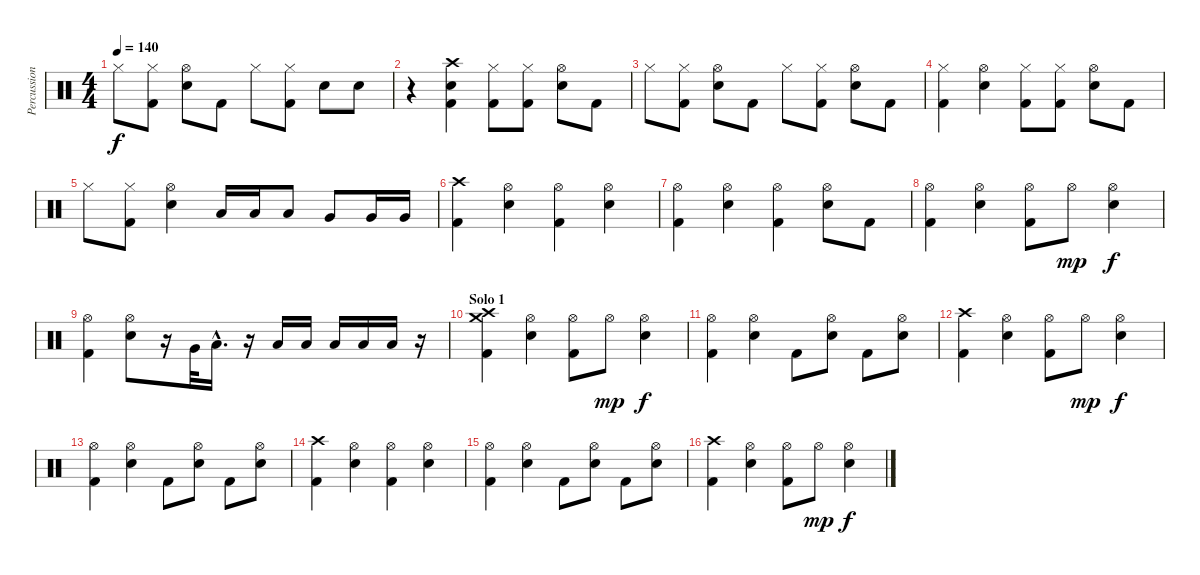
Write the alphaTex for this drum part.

\track ("Percussion" "Percussion") {instrument percussion}
\staff {score}
\articulation defaults
\ts (4 4)
\tempo 140
\clef neutral
\ks c "Hi-Hat (closed)".8{dy f}
("Hi-Hat (closed)" "Kick (hit) 2").8 ("Hi-Hat (open)" "Electric Snare (hit)").8 "Kick (hit) 2".8 "Hi-Hat (closed)".8 ("Hi-Hat (closed)" "Kick (hit) 2").8 "Electric Snare (hit)".8 "Electric Snare (hit)".8 |
r.4 ("Crash high (hit)" "Electric Snare (hit)" "Kick (hit) 2").4 ("Hi-Hat (closed)" "Kick (hit) 2").8 ("Hi-Hat (closed)" "Kick (hit) 2").8 ("Hi-Hat (open)" "Electric Snare (hit)").8 "Kick (hit) 2".8 |
"Hi-Hat (closed)".8 ("Hi-Hat (closed)" "Kick (hit) 2").8 ("Hi-Hat (open)" "Electric Snare (hit)").8 "Kick (hit) 2".8 "Hi-Hat (closed)".8 ("Hi-Hat (closed)" "Kick (hit) 2").8 ("Hi-Hat (open)" "Electric Snare (hit)").8 "Kick (hit) 2".8 |
("Hi-Hat (closed)" "Kick (hit) 2").4 ("Hi-Hat (open)" "Electric Snare (hit)").4 ("Hi-Hat (closed)" "Kick (hit) 2").8 ("Hi-Hat (closed)" "Kick (hit) 2").8 ("Hi-Hat (open)" "Electric Snare (hit)").8 "Kick (hit) 2".8 |
"Hi-Hat (closed)".8 ("Hi-Hat (closed)" "Kick (hit) 2").8 ("Hi-Hat (open)" "Electric Snare (hit)").4 "Low Tom (hit)".16 "Low Tom (hit)".16 "Low Tom (hit)".8 "Very Low Tom (hit)".8 "Very Low Tom (hit)".16 "Very Low Tom (hit)".16 |
("Crash high (hit)" "Kick (hit) 2").4 ("Hi-Hat (open)" "Electric Snare (hit)").4 ("Hi-Hat (open)" "Kick (hit) 2").4 ("Hi-Hat (open)" "Electric Snare (hit)").4 |
("Hi-Hat (open)" "Kick (hit) 2").4 ("Hi-Hat (open)" "Electric Snare (hit)").4 ("Hi-Hat (open)" "Kick (hit) 2").4 ("Hi-Hat (open)" "Electric Snare (hit)").8 "Kick (hit) 2".8 |
("Hi-Hat (open)" "Kick (hit) 2").4 ("Hi-Hat (open)" "Electric Snare (hit)").4 ("Hi-Hat (open)" "Kick (hit) 2").8 "Hi-Hat (open)".8{dy mp} ("Hi-Hat (open)" "Electric Snare (hit)").4{dy f} |
("Hi-Hat (open)" "Kick (hit) 2").4 ("Hi-Hat (open)" "Electric Snare (hit)").8 r.16 "Very Low Tom (hit)".32 "Low Tom (hit)"{hac}.16{d} r.16 "Low Tom (hit)".16 "Low Tom (hit)".16 "Low Tom (hit)".16 "Low Tom (hit)".16 "Low Tom (hit)".16 r.16 |
\section ("" "Solo 1")
("Crash high (hit)" "Crash medium (hit)" "Kick (hit) 2").4 ("Hi-Hat (open)" "Electric Snare (hit)").4 ("Hi-Hat (open)" "Kick (hit) 2").8 "Hi-Hat (open)".8{dy mp} ("Hi-Hat (open)" "Electric Snare (hit)").4{dy f} |
("Hi-Hat (open)" "Kick (hit) 2").4 ("Hi-Hat (open)" "Electric Snare (hit)").4 "Kick (hit) 2".8 ("Hi-Hat (open)" "Electric Snare (hit)").8 "Kick (hit) 2".8 ("Hi-Hat (open)" "Electric Snare (hit)").8 |
("Crash high (hit)" "Kick (hit) 2").4 ("Hi-Hat (open)" "Electric Snare (hit)").4 ("Hi-Hat (open)" "Kick (hit) 2").8 "Hi-Hat (open)".8{dy mp} ("Hi-Hat (open)" "Electric Snare (hit)").4{dy f} |
("Hi-Hat (open)" "Kick (hit) 2").4 ("Hi-Hat (open)" "Electric Snare (hit)").4 "Kick (hit) 2".8 ("Hi-Hat (open)" "Electric Snare (hit)").8 "Kick (hit) 2".8 ("Hi-Hat (open)" "Electric Snare (hit)").8 |
("Crash high (hit)" "Kick (hit) 2").4 ("Hi-Hat (open)" "Electric Snare (hit)").4 ("Hi-Hat (open)" "Kick (hit) 2").4 ("Hi-Hat (open)" "Electric Snare (hit)").4 |
("Hi-Hat (open)" "Kick (hit) 2").4 ("Hi-Hat (open)" "Electric Snare (hit)").4 "Kick (hit) 2".8 ("Hi-Hat (open)" "Electric Snare (hit)").8 "Kick (hit) 2".8 ("Hi-Hat (open)" "Electric Snare (hit)").8 |
("Crash high (hit)" "Kick (hit) 2").4 ("Hi-Hat (open)" "Electric Snare (hit)").4 ("Hi-Hat (open)" "Kick (hit) 2").8 "Hi-Hat (open)".8{dy mp} ("Hi-Hat (open)" "Electric Snare (hit)").4{dy f}
